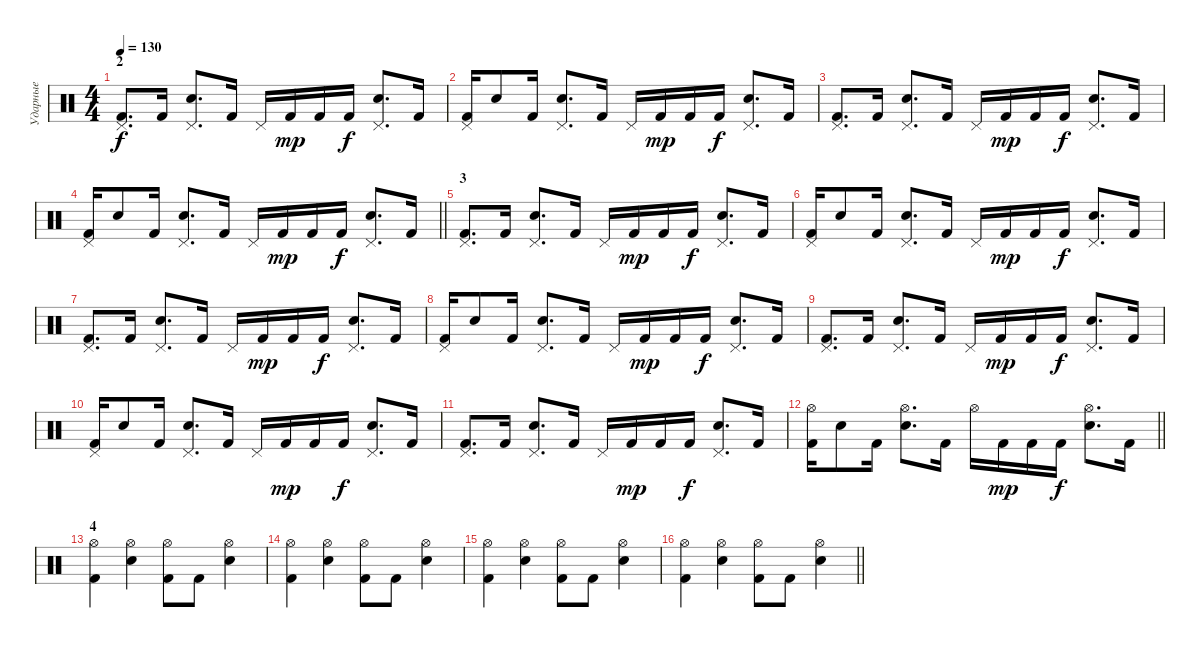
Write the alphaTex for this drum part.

\track ("Ударные" "Ударные") {instrument percussion}
\staff {score}
\articulation defaults
\ts (4 4)
\section ("" "2")
\tempo 130
\clef neutral
\ks c
("Kick (hit) 2" "Pedal Hi-Hat (hit)").8{d dy f} "Kick (hit) 2".16 ("Electric Snare (hit)" "Pedal Hi-Hat (hit)").8{d} "Kick (hit) 2".16 "Pedal Hi-Hat (hit)".16 "Kick (hit) 2".16{dy mp} "Kick (hit) 2".16 "Kick (hit) 2".16{dy f} ("Electric Snare (hit)" "Pedal Hi-Hat (hit)").8{d} "Kick (hit) 2".16 |
("Kick (hit) 2" "Pedal Hi-Hat (hit)").16 "Electric Snare (hit)".8 "Kick (hit) 2".16 ("Electric Snare (hit)" "Pedal Hi-Hat (hit)").8{d} "Kick (hit) 2".16 "Pedal Hi-Hat (hit)".16 "Kick (hit) 2".16{dy mp} "Kick (hit) 2".16 "Kick (hit) 2".16{dy f} ("Electric Snare (hit)" "Pedal Hi-Hat (hit)").8{d} "Kick (hit) 2".16 |
("Kick (hit) 2" "Pedal Hi-Hat (hit)").8{d} "Kick (hit) 2".16 ("Electric Snare (hit)" "Pedal Hi-Hat (hit)").8{d} "Kick (hit) 2".16 "Pedal Hi-Hat (hit)".16 "Kick (hit) 2".16{dy mp} "Kick (hit) 2".16 "Kick (hit) 2".16{dy f} ("Electric Snare (hit)" "Pedal Hi-Hat (hit)").8{d} "Kick (hit) 2".16 |
\barLineRight lightlight
("Kick (hit) 2" "Pedal Hi-Hat (hit)").16 "Electric Snare (hit)".8 "Kick (hit) 2".16 ("Electric Snare (hit)" "Pedal Hi-Hat (hit)").8{d} "Kick (hit) 2".16 "Pedal Hi-Hat (hit)".16 "Kick (hit) 2".16{dy mp} "Kick (hit) 2".16 "Kick (hit) 2".16{dy f} ("Electric Snare (hit)" "Pedal Hi-Hat (hit)").8{d} "Kick (hit) 2".16 |
\section ("" "3")
("Kick (hit) 2" "Pedal Hi-Hat (hit)").8{d} "Kick (hit) 2".16 ("Electric Snare (hit)" "Pedal Hi-Hat (hit)").8{d} "Kick (hit) 2".16 "Pedal Hi-Hat (hit)".16 "Kick (hit) 2".16{dy mp} "Kick (hit) 2".16 "Kick (hit) 2".16{dy f} ("Electric Snare (hit)" "Pedal Hi-Hat (hit)").8{d} "Kick (hit) 2".16 |
("Kick (hit) 2" "Pedal Hi-Hat (hit)").16 "Electric Snare (hit)".8 "Kick (hit) 2".16 ("Electric Snare (hit)" "Pedal Hi-Hat (hit)").8{d} "Kick (hit) 2".16 "Pedal Hi-Hat (hit)".16 "Kick (hit) 2".16{dy mp} "Kick (hit) 2".16 "Kick (hit) 2".16{dy f} ("Electric Snare (hit)" "Pedal Hi-Hat (hit)").8{d} "Kick (hit) 2".16 |
("Kick (hit) 2" "Pedal Hi-Hat (hit)").8{d} "Kick (hit) 2".16 ("Electric Snare (hit)" "Pedal Hi-Hat (hit)").8{d} "Kick (hit) 2".16 "Pedal Hi-Hat (hit)".16 "Kick (hit) 2".16{dy mp} "Kick (hit) 2".16 "Kick (hit) 2".16{dy f} ("Electric Snare (hit)" "Pedal Hi-Hat (hit)").8{d} "Kick (hit) 2".16 |
("Kick (hit) 2" "Pedal Hi-Hat (hit)").16 "Electric Snare (hit)".8 "Kick (hit) 2".16 ("Electric Snare (hit)" "Pedal Hi-Hat (hit)").8{d} "Kick (hit) 2".16 "Pedal Hi-Hat (hit)".16 "Kick (hit) 2".16{dy mp} "Kick (hit) 2".16 "Kick (hit) 2".16{dy f} ("Electric Snare (hit)" "Pedal Hi-Hat (hit)").8{d} "Kick (hit) 2".16 |
("Kick (hit) 2" "Pedal Hi-Hat (hit)").8{d} "Kick (hit) 2".16 ("Electric Snare (hit)" "Pedal Hi-Hat (hit)").8{d} "Kick (hit) 2".16 "Pedal Hi-Hat (hit)".16 "Kick (hit) 2".16{dy mp} "Kick (hit) 2".16 "Kick (hit) 2".16{dy f} ("Electric Snare (hit)" "Pedal Hi-Hat (hit)").8{d} "Kick (hit) 2".16 |
("Kick (hit) 2" "Pedal Hi-Hat (hit)").16 "Electric Snare (hit)".8 "Kick (hit) 2".16 ("Electric Snare (hit)" "Pedal Hi-Hat (hit)").8{d} "Kick (hit) 2".16 "Pedal Hi-Hat (hit)".16 "Kick (hit) 2".16{dy mp} "Kick (hit) 2".16 "Kick (hit) 2".16{dy f} ("Electric Snare (hit)" "Pedal Hi-Hat (hit)").8{d} "Kick (hit) 2".16 |
("Kick (hit) 2" "Pedal Hi-Hat (hit)").8{d} "Kick (hit) 2".16 ("Electric Snare (hit)" "Pedal Hi-Hat (hit)").8{d} "Kick (hit) 2".16 "Pedal Hi-Hat (hit)".16 "Kick (hit) 2".16{dy mp} "Kick (hit) 2".16 "Kick (hit) 2".16{dy f} ("Electric Snare (hit)" "Pedal Hi-Hat (hit)").8{d} "Kick (hit) 2".16 |
\barLineRight lightlight
("Kick (hit) 2" "Hi-Hat (open)").16 "Electric Snare (hit)".8 "Kick (hit) 2".16 ("Electric Snare (hit)" "Hi-Hat (open)").8{d} "Kick (hit) 2".16 "Hi-Hat (open)".16 "Kick (hit) 2".16{dy mp} "Kick (hit) 2".16 "Kick (hit) 2".16{dy f} ("Electric Snare (hit)" "Hi-Hat (open)").8{d} "Kick (hit) 2".16 |
\section ("" "4")
("Kick (hit) 2" "Hi-Hat (open)").4 ("Electric Snare (hit)" "Hi-Hat (open)").4 ("Kick (hit) 2" "Hi-Hat (open)").8 "Kick (hit) 2".8 ("Electric Snare (hit)" "Hi-Hat (open)").4 |
("Kick (hit) 2" "Hi-Hat (open)").4 ("Electric Snare (hit)" "Hi-Hat (open)").4 ("Kick (hit) 2" "Hi-Hat (open)").8 "Kick (hit) 2".8 ("Electric Snare (hit)" "Hi-Hat (open)").4 |
("Kick (hit) 2" "Hi-Hat (open)").4 ("Electric Snare (hit)" "Hi-Hat (open)").4 ("Kick (hit) 2" "Hi-Hat (open)").8 "Kick (hit) 2".8 ("Electric Snare (hit)" "Hi-Hat (open)").4 |
\barLineRight lightlight
("Kick (hit) 2" "Hi-Hat (open)").4 ("Electric Snare (hit)" "Hi-Hat (open)").4 ("Kick (hit) 2" "Hi-Hat (open)").8 "Kick (hit) 2".8 ("Electric Snare (hit)" "Hi-Hat (open)").4
